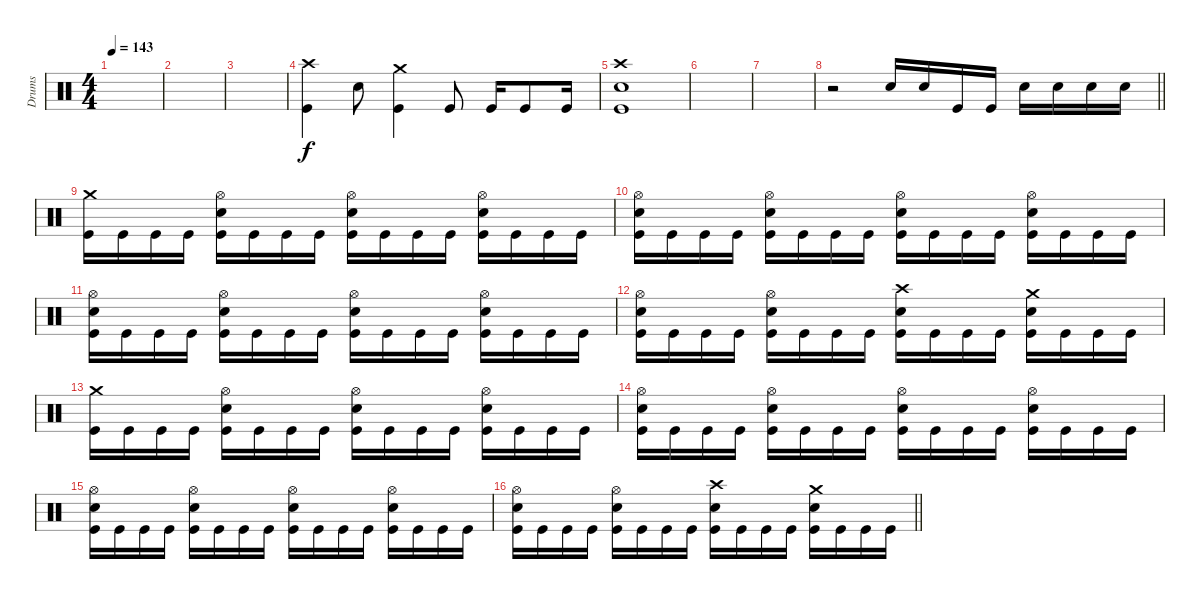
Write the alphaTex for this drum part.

\track ("Drums" "Drums") {instrument percussion}
\staff {score}
\articulation defaults
\ts (4 4)
\tempo 143
\clef neutral
\ks c
|
|
|
("Crash high (hit)" "Kick (hit)").4 "Electric Snare (hit)".8 ("Crash medium (hit)" "Kick (hit)").4 "Kick (hit)".8 "Kick (hit)".16 "Kick (hit)".8 "Kick (hit)".16 |
("Crash high (hit)" "Electric Snare (hit)" "Kick (hit)").1 |
|
|
\barLineRight lightlight
r.2 "Electric Snare (hit)".16 "Electric Snare (hit)".16 "Kick (hit)".16 "Kick (hit)".16 "Electric Snare (hit)".16 "Electric Snare (hit)".16 "Electric Snare (hit)".16 "Electric Snare (hit)".16 |
\section ("" "")
("Crash medium (hit)" "Kick (hit)").16 "Kick (hit)".16 "Kick (hit)".16 "Kick (hit)".16 ("Hi-Hat (open)" "Electric Snare (hit)" "Kick (hit)").16 "Kick (hit)".16 "Kick (hit)".16 "Kick (hit)".16 ("Hi-Hat (open)" "Electric Snare (hit)" "Kick (hit)").16 "Kick (hit)".16 "Kick (hit)".16 "Kick (hit)".16 ("Hi-Hat (open)" "Electric Snare (hit)" "Kick (hit)").16 "Kick (hit)".16 "Kick (hit)".16 "Kick (hit)".16 |
("Hi-Hat (open)" "Electric Snare (hit)" "Kick (hit)").16 "Kick (hit)".16 "Kick (hit)".16 "Kick (hit)".16 ("Hi-Hat (open)" "Electric Snare (hit)" "Kick (hit)").16 "Kick (hit)".16 "Kick (hit)".16 "Kick (hit)".16 ("Hi-Hat (open)" "Electric Snare (hit)" "Kick (hit)").16 "Kick (hit)".16 "Kick (hit)".16 "Kick (hit)".16 ("Hi-Hat (open)" "Electric Snare (hit)" "Kick (hit)").16 "Kick (hit)".16 "Kick (hit)".16 "Kick (hit)".16 |
("Hi-Hat (open)" "Electric Snare (hit)" "Kick (hit)").16 "Kick (hit)".16 "Kick (hit)".16 "Kick (hit)".16 ("Hi-Hat (open)" "Electric Snare (hit)" "Kick (hit)").16 "Kick (hit)".16 "Kick (hit)".16 "Kick (hit)".16 ("Hi-Hat (open)" "Electric Snare (hit)" "Kick (hit)").16 "Kick (hit)".16 "Kick (hit)".16 "Kick (hit)".16 ("Hi-Hat (open)" "Electric Snare (hit)" "Kick (hit)").16 "Kick (hit)".16 "Kick (hit)".16 "Kick (hit)".16 |
("Hi-Hat (open)" "Electric Snare (hit)" "Kick (hit)").16 "Kick (hit)".16 "Kick (hit)".16 "Kick (hit)".16 ("Hi-Hat (open)" "Electric Snare (hit)" "Kick (hit)").16 "Kick (hit)".16 "Kick (hit)".16 "Kick (hit)".16 ("Crash high (hit)" "Electric Snare (hit)" "Kick (hit)").16 "Kick (hit)".16 "Kick (hit)".16 "Kick (hit)".16 ("Crash medium (hit)" "Electric Snare (hit)" "Kick (hit)").16 "Kick (hit)".16 "Kick (hit)".16 "Kick (hit)".16 |
("Crash medium (hit)" "Kick (hit)").16 "Kick (hit)".16 "Kick (hit)".16 "Kick (hit)".16 ("Hi-Hat (open)" "Electric Snare (hit)" "Kick (hit)").16 "Kick (hit)".16 "Kick (hit)".16 "Kick (hit)".16 ("Hi-Hat (open)" "Electric Snare (hit)" "Kick (hit)").16 "Kick (hit)".16 "Kick (hit)".16 "Kick (hit)".16 ("Hi-Hat (open)" "Electric Snare (hit)" "Kick (hit)").16 "Kick (hit)".16 "Kick (hit)".16 "Kick (hit)".16 |
("Hi-Hat (open)" "Electric Snare (hit)" "Kick (hit)").16 "Kick (hit)".16 "Kick (hit)".16 "Kick (hit)".16 ("Hi-Hat (open)" "Electric Snare (hit)" "Kick (hit)").16 "Kick (hit)".16 "Kick (hit)".16 "Kick (hit)".16 ("Hi-Hat (open)" "Electric Snare (hit)" "Kick (hit)").16 "Kick (hit)".16 "Kick (hit)".16 "Kick (hit)".16 ("Hi-Hat (open)" "Electric Snare (hit)" "Kick (hit)").16 "Kick (hit)".16 "Kick (hit)".16 "Kick (hit)".16 |
("Hi-Hat (open)" "Electric Snare (hit)" "Kick (hit)").16 "Kick (hit)".16 "Kick (hit)".16 "Kick (hit)".16 ("Hi-Hat (open)" "Electric Snare (hit)" "Kick (hit)").16 "Kick (hit)".16 "Kick (hit)".16 "Kick (hit)".16 ("Hi-Hat (open)" "Electric Snare (hit)" "Kick (hit)").16 "Kick (hit)".16 "Kick (hit)".16 "Kick (hit)".16 ("Hi-Hat (open)" "Electric Snare (hit)" "Kick (hit)").16 "Kick (hit)".16 "Kick (hit)".16 "Kick (hit)".16 |
\barLineRight lightlight
("Hi-Hat (open)" "Electric Snare (hit)" "Kick (hit)").16 "Kick (hit)".16 "Kick (hit)".16 "Kick (hit)".16 ("Hi-Hat (open)" "Electric Snare (hit)" "Kick (hit)").16 "Kick (hit)".16 "Kick (hit)".16 "Kick (hit)".16 ("Crash high (hit)" "Electric Snare (hit)" "Kick (hit)").16 "Kick (hit)".16 "Kick (hit)".16 "Kick (hit)".16 ("Crash medium (hit)" "Electric Snare (hit)" "Kick (hit)").16 "Kick (hit)".16 "Kick (hit)".16 "Kick (hit)".16
